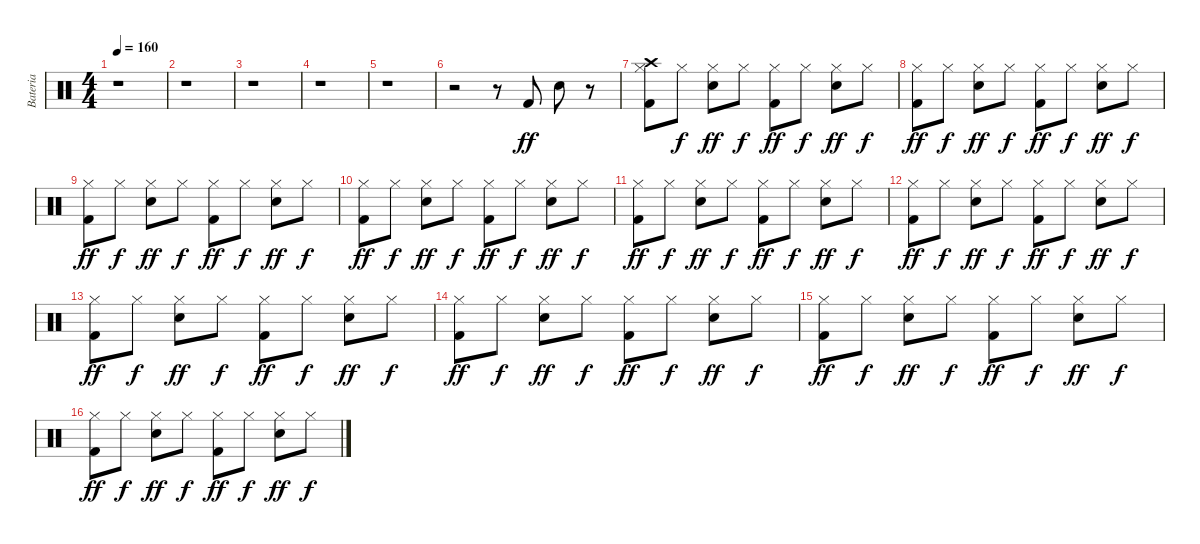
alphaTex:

\track ("Bateria" "Bateria") {instrument percussion}
\staff {score}
\articulation defaults
\ts (4 4)
\tempo 160
\clef neutral
\ks c
r.1{dy ff} |
r.1 |
r.1 |
r.1 |
r.1 |
r.2 r.8 "Kick (hit) 2".8 "Snare (hit) 2".8 r.8 |
("Crash high (hit)" "Kick (hit) 2" "Hi-Hat (closed)").8 "Hi-Hat (closed)".8{dy f} ("Hi-Hat (closed)" "Snare (hit) 2").8{dy ff} "Hi-Hat (closed)".8{dy f} ("Kick (hit) 2" "Hi-Hat (closed)").8{dy ff} "Hi-Hat (closed)".8{dy f} ("Hi-Hat (closed)" "Snare (hit) 2").8{dy ff} "Hi-Hat (closed)".8{dy f} |
("Kick (hit) 2" "Hi-Hat (closed)").8{dy ff} "Hi-Hat (closed)".8{dy f} ("Hi-Hat (closed)" "Snare (hit) 2").8{dy ff} "Hi-Hat (closed)".8{dy f} ("Kick (hit) 2" "Hi-Hat (closed)").8{dy ff} "Hi-Hat (closed)".8{dy f} ("Hi-Hat (closed)" "Snare (hit) 2").8{dy ff} "Hi-Hat (closed)".8{dy f} |
("Kick (hit) 2" "Hi-Hat (closed)").8{dy ff} "Hi-Hat (closed)".8{dy f} ("Hi-Hat (closed)" "Snare (hit) 2").8{dy ff} "Hi-Hat (closed)".8{dy f} ("Kick (hit) 2" "Hi-Hat (closed)").8{dy ff} "Hi-Hat (closed)".8{dy f} ("Hi-Hat (closed)" "Snare (hit) 2").8{dy ff} "Hi-Hat (closed)".8{dy f} |
("Kick (hit) 2" "Hi-Hat (closed)").8{dy ff} "Hi-Hat (closed)".8{dy f} ("Hi-Hat (closed)" "Snare (hit) 2").8{dy ff} "Hi-Hat (closed)".8{dy f} ("Kick (hit) 2" "Hi-Hat (closed)").8{dy ff} "Hi-Hat (closed)".8{dy f} ("Hi-Hat (closed)" "Snare (hit) 2").8{dy ff} "Hi-Hat (closed)".8{dy f} |
("Kick (hit) 2" "Hi-Hat (closed)").8{dy ff} "Hi-Hat (closed)".8{dy f} ("Hi-Hat (closed)" "Snare (hit) 2").8{dy ff} "Hi-Hat (closed)".8{dy f} ("Kick (hit) 2" "Hi-Hat (closed)").8{dy ff} "Hi-Hat (closed)".8{dy f} ("Hi-Hat (closed)" "Snare (hit) 2").8{dy ff} "Hi-Hat (closed)".8{dy f} |
("Kick (hit) 2" "Hi-Hat (closed)").8{dy ff} "Hi-Hat (closed)".8{dy f} ("Hi-Hat (closed)" "Snare (hit) 2").8{dy ff} "Hi-Hat (closed)".8{dy f} ("Kick (hit) 2" "Hi-Hat (closed)").8{dy ff} "Hi-Hat (closed)".8{dy f} ("Hi-Hat (closed)" "Snare (hit) 2").8{dy ff} "Hi-Hat (closed)".8{dy f} |
("Kick (hit) 2" "Hi-Hat (closed)").8{dy ff} "Hi-Hat (closed)".8{dy f} ("Hi-Hat (closed)" "Snare (hit) 2").8{dy ff} "Hi-Hat (closed)".8{dy f} ("Kick (hit) 2" "Hi-Hat (closed)").8{dy ff} "Hi-Hat (closed)".8{dy f} ("Hi-Hat (closed)" "Snare (hit) 2").8{dy ff} "Hi-Hat (closed)".8{dy f} |
("Kick (hit) 2" "Hi-Hat (closed)").8{dy ff} "Hi-Hat (closed)".8{dy f} ("Hi-Hat (closed)" "Snare (hit) 2").8{dy ff} "Hi-Hat (closed)".8{dy f} ("Kick (hit) 2" "Hi-Hat (closed)").8{dy ff} "Hi-Hat (closed)".8{dy f} ("Hi-Hat (closed)" "Snare (hit) 2").8{dy ff} "Hi-Hat (closed)".8{dy f} |
("Kick (hit) 2" "Hi-Hat (closed)").8{dy ff} "Hi-Hat (closed)".8{dy f} ("Hi-Hat (closed)" "Snare (hit) 2").8{dy ff} "Hi-Hat (closed)".8{dy f} ("Kick (hit) 2" "Hi-Hat (closed)").8{dy ff} "Hi-Hat (closed)".8{dy f} ("Hi-Hat (closed)" "Snare (hit) 2").8{dy ff} "Hi-Hat (closed)".8{dy f} |
("Kick (hit) 2" "Hi-Hat (closed)").8{dy ff} "Hi-Hat (closed)".8{dy f} ("Hi-Hat (closed)" "Snare (hit) 2").8{dy ff} "Hi-Hat (closed)".8{dy f} ("Kick (hit) 2" "Hi-Hat (closed)").8{dy ff} "Hi-Hat (closed)".8{dy f} ("Hi-Hat (closed)" "Snare (hit) 2").8{dy ff} "Hi-Hat (closed)".8{dy f}
